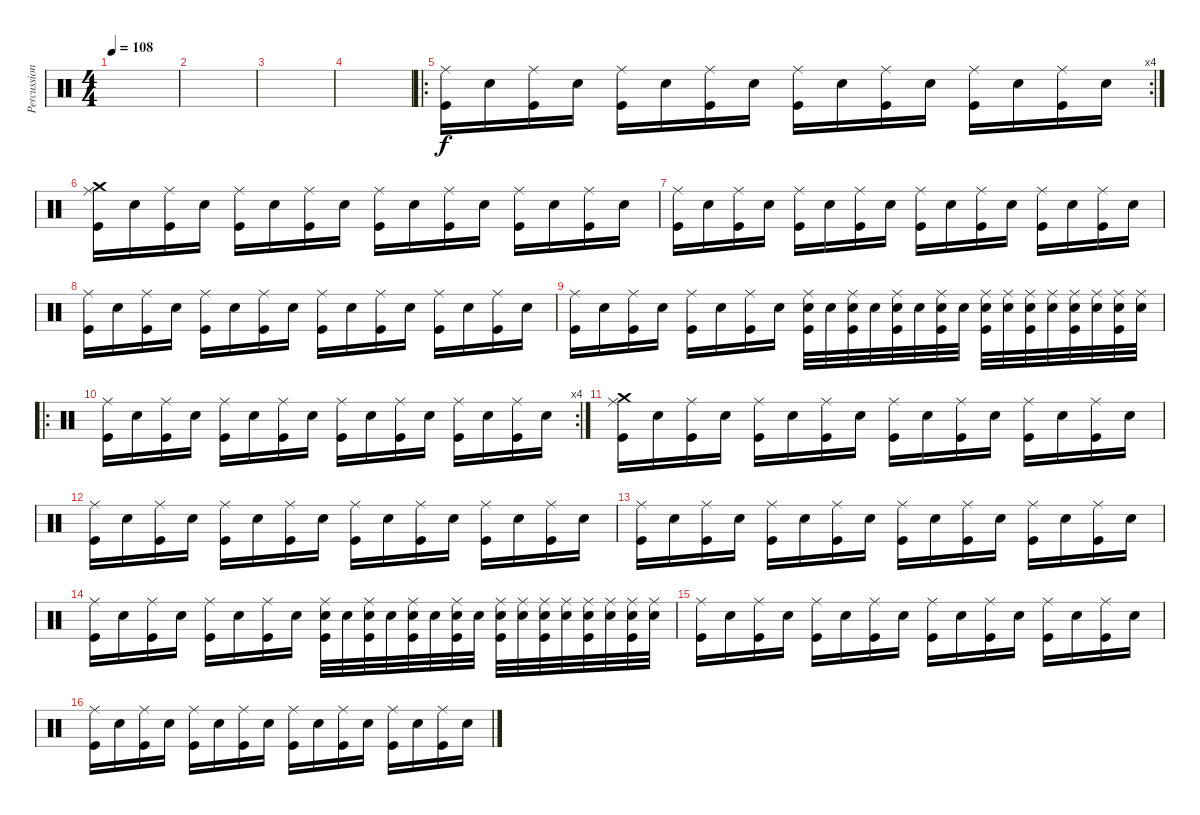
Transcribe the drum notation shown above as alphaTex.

\track ("Percussions" "Percussion") {instrument percussion}
\staff {score}
\articulation defaults
\ts (4 4)
\tempo 108
\clef neutral
\ks c
|
|
|
|
\ro
\rc 4
("Ride (middle)" "Kick (hit)").16 "Electric Snare (hit)".16 ("Ride (middle)" "Kick (hit)").16 "Electric Snare (hit)".16 ("Ride (middle)" "Kick (hit)").16 "Electric Snare (hit)".16 ("Ride (middle)" "Kick (hit)").16 "Electric Snare (hit)".16 ("Ride (middle)" "Kick (hit)").16 "Electric Snare (hit)".16 ("Ride (middle)" "Kick (hit)").16 "Electric Snare (hit)".16 ("Ride (middle)" "Kick (hit)").16 "Electric Snare (hit)".16 ("Ride (middle)" "Kick (hit)").16 "Electric Snare (hit)".16 |
("Ride (middle)" "Crash medium (hit)" "Kick (hit)").16 "Electric Snare (hit)".16 ("Ride (middle)" "Kick (hit)").16 "Electric Snare (hit)".16 ("Ride (middle)" "Kick (hit)").16 "Electric Snare (hit)".16 ("Ride (middle)" "Kick (hit)").16 "Electric Snare (hit)".16 ("Ride (middle)" "Kick (hit)").16 "Electric Snare (hit)".16 ("Ride (middle)" "Kick (hit)").16 "Electric Snare (hit)".16 ("Ride (middle)" "Kick (hit)").16 "Electric Snare (hit)".16 ("Ride (middle)" "Kick (hit)").16 "Electric Snare (hit)".16 |
("Ride (middle)" "Kick (hit)").16 "Electric Snare (hit)".16 ("Ride (middle)" "Kick (hit)").16 "Electric Snare (hit)".16 ("Ride (middle)" "Kick (hit)").16 "Electric Snare (hit)".16 ("Ride (middle)" "Kick (hit)").16 "Electric Snare (hit)".16 ("Ride (middle)" "Kick (hit)").16 "Electric Snare (hit)".16 ("Ride (middle)" "Kick (hit)").16 "Electric Snare (hit)".16 ("Ride (middle)" "Kick (hit)").16 "Electric Snare (hit)".16 ("Ride (middle)" "Kick (hit)").16 "Electric Snare (hit)".16 |
("Ride (middle)" "Kick (hit)").16 "Electric Snare (hit)".16 ("Ride (middle)" "Kick (hit)").16 "Electric Snare (hit)".16 ("Ride (middle)" "Kick (hit)").16 "Electric Snare (hit)".16 ("Ride (middle)" "Kick (hit)").16 "Electric Snare (hit)".16 ("Ride (middle)" "Kick (hit)").16 "Electric Snare (hit)".16 ("Ride (middle)" "Kick (hit)").16 "Electric Snare (hit)".16 ("Ride (middle)" "Kick (hit)").16 "Electric Snare (hit)".16 ("Ride (middle)" "Kick (hit)").16 "Electric Snare (hit)".16 |
("Ride (middle)" "Kick (hit)").16 "Electric Snare (hit)".16 ("Ride (middle)" "Kick (hit)").16 "Electric Snare (hit)".16 ("Ride (middle)" "Kick (hit)").16 "Electric Snare (hit)".16 ("Ride (middle)" "Kick (hit)").16 "Electric Snare (hit)".16 ("Ride (middle)" "Electric Snare (hit)" "Kick (hit)").32 "Electric Snare (hit)".32 ("Ride (middle)" "Electric Snare (hit)" "Kick (hit)").32 "Electric Snare (hit)".32 ("Ride (middle)" "Electric Snare (hit)" "Kick (hit)").32 "Electric Snare (hit)".32 ("Ride (middle)" "Electric Snare (hit)" "Kick (hit)").32 "Electric Snare (hit)".32 ("Ride (middle)" "Snare (hit) 2" "Kick (hit)").32 ("Ride (middle)" "Snare (hit) 2").32 ("Ride (middle)" "Snare (hit) 2" "Kick (hit)").32 ("Ride (middle)" "Snare (hit) 2").32 ("Ride (middle)" "Snare (hit) 2" "Kick (hit)").32 ("Ride (middle)" "Snare (hit) 2").32 ("Ride (middle)" "Snare (hit) 2" "Kick (hit)").32 ("Ride (middle)" "Snare (hit) 2").32 |
\ro
\rc 4
("Ride (middle)" "Kick (hit)").16 "Electric Snare (hit)".16 ("Ride (middle)" "Kick (hit)").16 "Electric Snare (hit)".16 ("Ride (middle)" "Kick (hit)").16 "Electric Snare (hit)".16 ("Ride (middle)" "Kick (hit)").16 "Electric Snare (hit)".16 ("Ride (middle)" "Kick (hit)").16 "Electric Snare (hit)".16 ("Ride (middle)" "Kick (hit)").16 "Electric Snare (hit)".16 ("Ride (middle)" "Kick (hit)").16 "Electric Snare (hit)".16 ("Ride (middle)" "Kick (hit)").16 "Electric Snare (hit)".16 |
("Ride (middle)" "Crash medium (hit)" "Kick (hit)").16 "Electric Snare (hit)".16 ("Ride (middle)" "Kick (hit)").16 "Electric Snare (hit)".16 ("Ride (middle)" "Kick (hit)").16 "Electric Snare (hit)".16 ("Ride (middle)" "Kick (hit)").16 "Electric Snare (hit)".16 ("Ride (middle)" "Kick (hit)").16 "Electric Snare (hit)".16 ("Ride (middle)" "Kick (hit)").16 "Electric Snare (hit)".16 ("Ride (middle)" "Kick (hit)").16 "Electric Snare (hit)".16 ("Ride (middle)" "Kick (hit)").16 "Electric Snare (hit)".16 |
("Ride (middle)" "Kick (hit)").16 "Electric Snare (hit)".16 ("Ride (middle)" "Kick (hit)").16 "Electric Snare (hit)".16 ("Ride (middle)" "Kick (hit)").16 "Electric Snare (hit)".16 ("Ride (middle)" "Kick (hit)").16 "Electric Snare (hit)".16 ("Ride (middle)" "Kick (hit)").16 "Electric Snare (hit)".16 ("Ride (middle)" "Kick (hit)").16 "Electric Snare (hit)".16 ("Ride (middle)" "Kick (hit)").16 "Electric Snare (hit)".16 ("Ride (middle)" "Kick (hit)").16 "Electric Snare (hit)".16 |
("Ride (middle)" "Kick (hit)").16 "Electric Snare (hit)".16 ("Ride (middle)" "Kick (hit)").16 "Electric Snare (hit)".16 ("Ride (middle)" "Kick (hit)").16 "Electric Snare (hit)".16 ("Ride (middle)" "Kick (hit)").16 "Electric Snare (hit)".16 ("Ride (middle)" "Kick (hit)").16 "Electric Snare (hit)".16 ("Ride (middle)" "Kick (hit)").16 "Electric Snare (hit)".16 ("Ride (middle)" "Kick (hit)").16 "Electric Snare (hit)".16 ("Ride (middle)" "Kick (hit)").16 "Electric Snare (hit)".16 |
("Ride (middle)" "Kick (hit)").16 "Electric Snare (hit)".16 ("Ride (middle)" "Kick (hit)").16 "Electric Snare (hit)".16 ("Ride (middle)" "Kick (hit)").16 "Electric Snare (hit)".16 ("Ride (middle)" "Kick (hit)").16 "Electric Snare (hit)".16 ("Ride (middle)" "Electric Snare (hit)" "Kick (hit)").32 "Electric Snare (hit)".32 ("Ride (middle)" "Electric Snare (hit)" "Kick (hit)").32 "Electric Snare (hit)".32 ("Ride (middle)" "Electric Snare (hit)" "Kick (hit)").32 "Electric Snare (hit)".32 ("Ride (middle)" "Electric Snare (hit)" "Kick (hit)").32 "Electric Snare (hit)".32 ("Ride (middle)" "Snare (hit) 2" "Kick (hit)").32 ("Ride (middle)" "Snare (hit) 2").32 ("Ride (middle)" "Snare (hit) 2" "Kick (hit)").32 ("Ride (middle)" "Snare (hit) 2").32 ("Ride (middle)" "Snare (hit) 2" "Kick (hit)").32 ("Ride (middle)" "Snare (hit) 2").32 ("Ride (middle)" "Snare (hit) 2" "Kick (hit)").32 ("Ride (middle)" "Snare (hit) 2").32 |
("Ride (middle)" "Kick (hit)").16 "Electric Snare (hit)".16 ("Ride (middle)" "Kick (hit)").16 "Electric Snare (hit)".16 ("Ride (middle)" "Kick (hit)").16 "Electric Snare (hit)".16 ("Ride (middle)" "Kick (hit)").16 "Electric Snare (hit)".16 ("Ride (middle)" "Kick (hit)").16 "Electric Snare (hit)".16 ("Ride (middle)" "Kick (hit)").16 "Electric Snare (hit)".16 ("Ride (middle)" "Kick (hit)").16 "Electric Snare (hit)".16 ("Ride (middle)" "Kick (hit)").16 "Electric Snare (hit)".16 |
("Ride (middle)" "Kick (hit)").16 "Electric Snare (hit)".16 ("Ride (middle)" "Kick (hit)").16 "Electric Snare (hit)".16 ("Ride (middle)" "Kick (hit)").16 "Electric Snare (hit)".16 ("Ride (middle)" "Kick (hit)").16 "Electric Snare (hit)".16 ("Ride (middle)" "Kick (hit)").16 "Electric Snare (hit)".16 ("Ride (middle)" "Kick (hit)").16 "Electric Snare (hit)".16 ("Ride (middle)" "Kick (hit)").16 "Electric Snare (hit)".16 ("Ride (middle)" "Kick (hit)").16 "Electric Snare (hit)".16
